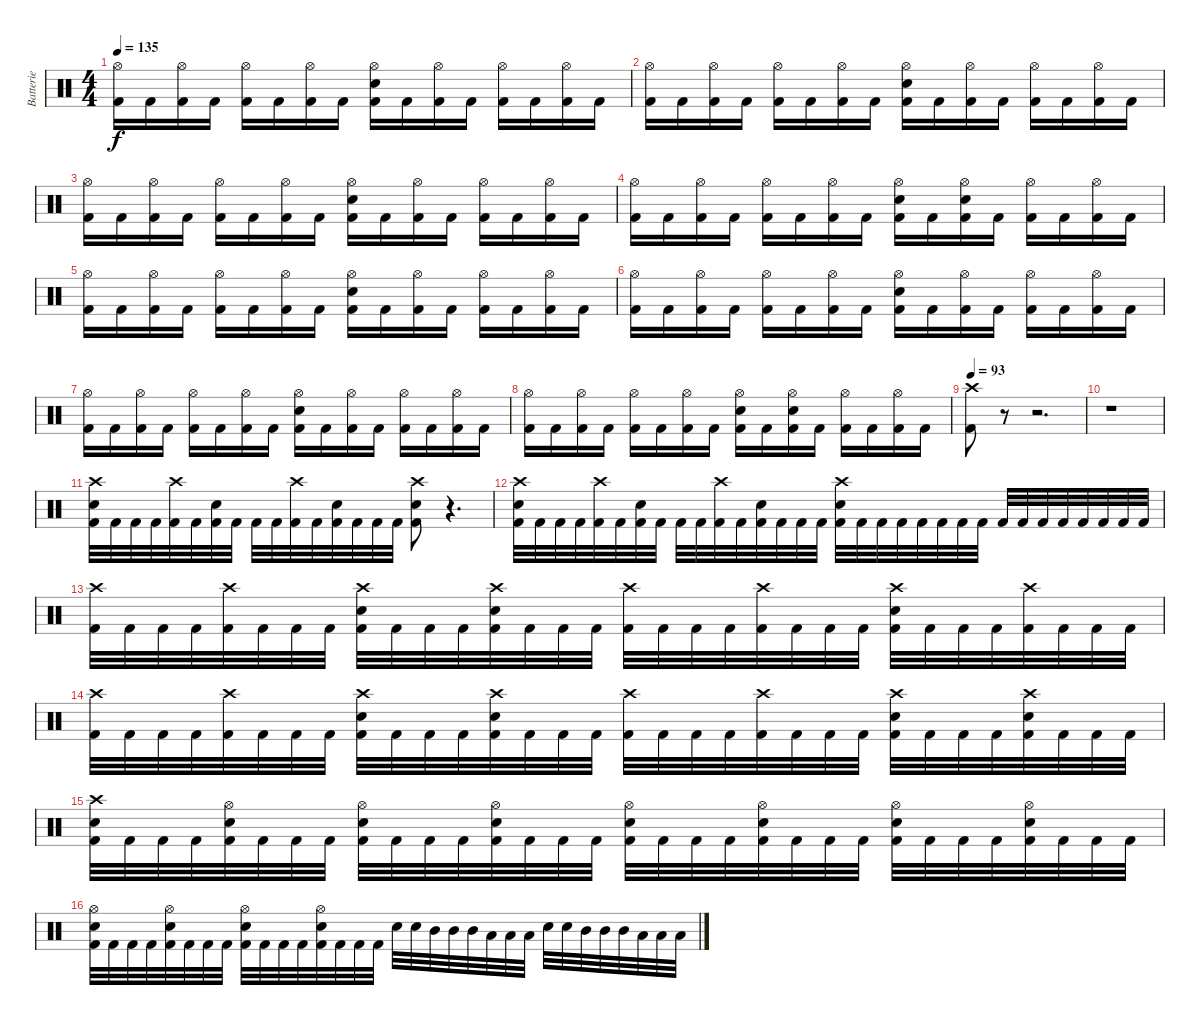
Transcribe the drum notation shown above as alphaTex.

\track ("Batterie" "Batterie") {instrument percussion}
\staff {score}
\articulation defaults
\ts (4 4)
\tempo 135
\clef neutral
\ks c
("Hi-Hat (open)" "Kick (hit) 2").16{dy f} "Kick (hit) 2".16 ("Hi-Hat (open)" "Kick (hit) 2").16 "Kick (hit) 2".16 ("Hi-Hat (open)" "Kick (hit) 2").16 "Kick (hit) 2".16 ("Hi-Hat (open)" "Kick (hit) 2").16 "Kick (hit) 2".16 ("Hi-Hat (open)" "Electric Snare (hit)" "Kick (hit) 2").16 "Kick (hit) 2".16 ("Hi-Hat (open)" "Kick (hit) 2").16 "Kick (hit) 2".16 ("Hi-Hat (open)" "Kick (hit) 2").16 "Kick (hit) 2".16 ("Hi-Hat (open)" "Kick (hit) 2").16 "Kick (hit) 2".16 |
("Hi-Hat (open)" "Kick (hit) 2").16 "Kick (hit) 2".16 ("Hi-Hat (open)" "Kick (hit) 2").16 "Kick (hit) 2".16 ("Hi-Hat (open)" "Kick (hit) 2").16 "Kick (hit) 2".16 ("Hi-Hat (open)" "Kick (hit) 2").16 "Kick (hit) 2".16 ("Hi-Hat (open)" "Electric Snare (hit)" "Kick (hit) 2").16 "Kick (hit) 2".16 ("Hi-Hat (open)" "Kick (hit) 2").16 "Kick (hit) 2".16 ("Hi-Hat (open)" "Kick (hit) 2").16 "Kick (hit) 2".16 ("Hi-Hat (open)" "Kick (hit) 2").16 "Kick (hit) 2".16 |
("Hi-Hat (open)" "Kick (hit) 2").16 "Kick (hit) 2".16 ("Hi-Hat (open)" "Kick (hit) 2").16 "Kick (hit) 2".16 ("Hi-Hat (open)" "Kick (hit) 2").16 "Kick (hit) 2".16 ("Hi-Hat (open)" "Kick (hit) 2").16 "Kick (hit) 2".16 ("Hi-Hat (open)" "Electric Snare (hit)" "Kick (hit) 2").16 "Kick (hit) 2".16 ("Hi-Hat (open)" "Kick (hit) 2").16 "Kick (hit) 2".16 ("Hi-Hat (open)" "Kick (hit) 2").16 "Kick (hit) 2".16 ("Hi-Hat (open)" "Kick (hit) 2").16 "Kick (hit) 2".16 |
("Hi-Hat (open)" "Kick (hit) 2").16 "Kick (hit) 2".16 ("Hi-Hat (open)" "Kick (hit) 2").16 "Kick (hit) 2".16 ("Hi-Hat (open)" "Kick (hit) 2").16 "Kick (hit) 2".16 ("Hi-Hat (open)" "Kick (hit) 2").16 "Kick (hit) 2".16 ("Hi-Hat (open)" "Electric Snare (hit)" "Kick (hit) 2").16 "Kick (hit) 2".16 ("Hi-Hat (open)" "Electric Snare (hit)" "Kick (hit) 2").16 "Kick (hit) 2".16 ("Hi-Hat (open)" "Kick (hit) 2").16 "Kick (hit) 2".16 ("Hi-Hat (open)" "Kick (hit) 2").16 "Kick (hit) 2".16 |
("Hi-Hat (open)" "Kick (hit) 2").16 "Kick (hit) 2".16 ("Hi-Hat (open)" "Kick (hit) 2").16 "Kick (hit) 2".16 ("Hi-Hat (open)" "Kick (hit) 2").16 "Kick (hit) 2".16 ("Hi-Hat (open)" "Kick (hit) 2").16 "Kick (hit) 2".16 ("Hi-Hat (open)" "Electric Snare (hit)" "Kick (hit) 2").16 "Kick (hit) 2".16 ("Hi-Hat (open)" "Kick (hit) 2").16 "Kick (hit) 2".16 ("Hi-Hat (open)" "Kick (hit) 2").16 "Kick (hit) 2".16 ("Hi-Hat (open)" "Kick (hit) 2").16 "Kick (hit) 2".16 |
("Hi-Hat (open)" "Kick (hit) 2").16 "Kick (hit) 2".16 ("Hi-Hat (open)" "Kick (hit) 2").16 "Kick (hit) 2".16 ("Hi-Hat (open)" "Kick (hit) 2").16 "Kick (hit) 2".16 ("Hi-Hat (open)" "Kick (hit) 2").16 "Kick (hit) 2".16 ("Hi-Hat (open)" "Electric Snare (hit)" "Kick (hit) 2").16 "Kick (hit) 2".16 ("Hi-Hat (open)" "Kick (hit) 2").16 "Kick (hit) 2".16 ("Hi-Hat (open)" "Kick (hit) 2").16 "Kick (hit) 2".16 ("Hi-Hat (open)" "Kick (hit) 2").16 "Kick (hit) 2".16 |
("Hi-Hat (open)" "Kick (hit) 2").16 "Kick (hit) 2".16 ("Hi-Hat (open)" "Kick (hit) 2").16 "Kick (hit) 2".16 ("Hi-Hat (open)" "Kick (hit) 2").16 "Kick (hit) 2".16 ("Hi-Hat (open)" "Kick (hit) 2").16 "Kick (hit) 2".16 ("Hi-Hat (open)" "Electric Snare (hit)" "Kick (hit) 2").16 "Kick (hit) 2".16 ("Hi-Hat (open)" "Kick (hit) 2").16 "Kick (hit) 2".16 ("Hi-Hat (open)" "Kick (hit) 2").16 "Kick (hit) 2".16 ("Hi-Hat (open)" "Kick (hit) 2").16 "Kick (hit) 2".16 |
("Hi-Hat (open)" "Kick (hit) 2").16 "Kick (hit) 2".16 ("Hi-Hat (open)" "Kick (hit) 2").16 "Kick (hit) 2".16 ("Hi-Hat (open)" "Kick (hit) 2").16 "Kick (hit) 2".16 ("Hi-Hat (open)" "Kick (hit) 2").16 "Kick (hit) 2".16 ("Hi-Hat (open)" "Electric Snare (hit)" "Kick (hit) 2").16 "Kick (hit) 2".16 ("Hi-Hat (open)" "Electric Snare (hit)" "Kick (hit) 2").16 "Kick (hit) 2".16 ("Hi-Hat (open)" "Kick (hit) 2").16 "Kick (hit) 2".16 ("Hi-Hat (open)" "Kick (hit) 2").16 "Kick (hit) 2".16 |
\section ("" "")
\tempo 93
("Crash high (hit)" "Kick (hit) 2").8 r.8 r.2{d} |
r.1 |
("Crash high (hit)" "Electric Snare (hit)" "Kick (hit) 2").32 "Kick (hit) 2".32 "Kick (hit) 2".32 "Kick (hit) 2".32 ("Crash high (hit)" "Kick (hit) 2").32 "Kick (hit) 2".32 ("Electric Snare (hit)" "Kick (hit) 2").32 "Kick (hit) 2".32 "Kick (hit) 2".32 "Kick (hit) 2".32 ("Crash high (hit)" "Kick (hit) 2").32 "Kick (hit) 2".32 ("Electric Snare (hit)" "Kick (hit) 2").32 "Kick (hit) 2".32 "Kick (hit) 2".32 "Kick (hit) 2".32 ("Crash high (hit)" "Electric Snare (hit)" "Kick (hit) 2").8 r.4{d} |
("Crash high (hit)" "Electric Snare (hit)" "Kick (hit) 2").32 "Kick (hit) 2".32 "Kick (hit) 2".32 "Kick (hit) 2".32 ("Crash high (hit)" "Kick (hit) 2").32 "Kick (hit) 2".32 ("Electric Snare (hit)" "Kick (hit) 2").32 "Kick (hit) 2".32 "Kick (hit) 2".32 "Kick (hit) 2".32 ("Crash high (hit)" "Kick (hit) 2").32 "Kick (hit) 2".32 ("Electric Snare (hit)" "Kick (hit) 2").32 "Kick (hit) 2".32 "Kick (hit) 2".32 "Kick (hit) 2".32 ("Crash high (hit)" "Electric Snare (hit)" "Kick (hit) 2").32 "Kick (hit) 2".32 "Kick (hit) 2".32 "Kick (hit) 2".32 "Kick (hit) 2".32 "Kick (hit) 2".32 "Kick (hit) 2".32 "Kick (hit) 2".32 "Kick (hit) 2".32 "Kick (hit) 2".32 "Kick (hit) 2".32 "Kick (hit) 2".32 "Kick (hit) 2".32 "Kick (hit) 2".32 "Kick (hit) 2".32 "Kick (hit) 2".32 |
("Crash high (hit)" "Kick (hit) 2").32 "Kick (hit) 2".32 "Kick (hit) 2".32 "Kick (hit) 2".32 ("Crash high (hit)" "Kick (hit) 2").32 "Kick (hit) 2".32 "Kick (hit) 2".32 "Kick (hit) 2".32 ("Crash high (hit)" "Electric Snare (hit)" "Kick (hit) 2").32 "Kick (hit) 2".32 "Kick (hit) 2".32 "Kick (hit) 2".32 ("Crash high (hit)" "Electric Snare (hit)" "Kick (hit) 2").32 "Kick (hit) 2".32 "Kick (hit) 2".32 "Kick (hit) 2".32 ("Crash high (hit)" "Kick (hit) 2").32 "Kick (hit) 2".32 "Kick (hit) 2".32 "Kick (hit) 2".32 ("Crash high (hit)" "Kick (hit) 2").32 "Kick (hit) 2".32 "Kick (hit) 2".32 "Kick (hit) 2".32 ("Crash high (hit)" "Electric Snare (hit)" "Kick (hit) 2").32 "Kick (hit) 2".32 "Kick (hit) 2".32 "Kick (hit) 2".32 ("Crash high (hit)" "Kick (hit) 2").32 "Kick (hit) 2".32 "Kick (hit) 2".32 "Kick (hit) 2".32 |
("Crash high (hit)" "Kick (hit) 2").32 "Kick (hit) 2".32 "Kick (hit) 2".32 "Kick (hit) 2".32 ("Crash high (hit)" "Kick (hit) 2").32 "Kick (hit) 2".32 "Kick (hit) 2".32 "Kick (hit) 2".32 ("Crash high (hit)" "Electric Snare (hit)" "Kick (hit) 2").32 "Kick (hit) 2".32 "Kick (hit) 2".32 "Kick (hit) 2".32 ("Crash high (hit)" "Electric Snare (hit)" "Kick (hit) 2").32 "Kick (hit) 2".32 "Kick (hit) 2".32 "Kick (hit) 2".32 ("Crash high (hit)" "Kick (hit) 2").32 "Kick (hit) 2".32 "Kick (hit) 2".32 "Kick (hit) 2".32 ("Crash high (hit)" "Kick (hit) 2").32 "Kick (hit) 2".32 "Kick (hit) 2".32 "Kick (hit) 2".32 ("Crash high (hit)" "Electric Snare (hit)" "Kick (hit) 2").32 "Kick (hit) 2".32 "Kick (hit) 2".32 "Kick (hit) 2".32 ("Crash high (hit)" "Electric Snare (hit)" "Kick (hit) 2").32 "Kick (hit) 2".32 "Kick (hit) 2".32 "Kick (hit) 2".32 |
("Crash high (hit)" "Electric Snare (hit)" "Kick (hit) 2").32 "Kick (hit) 2".32 "Kick (hit) 2".32 "Kick (hit) 2".32 ("Hi-Hat (open)" "Electric Snare (hit)" "Kick (hit) 2").32 "Kick (hit) 2".32 "Kick (hit) 2".32 "Kick (hit) 2".32 ("Hi-Hat (open)" "Electric Snare (hit)" "Kick (hit) 2").32 "Kick (hit) 2".32 "Kick (hit) 2".32 "Kick (hit) 2".32 ("Hi-Hat (open)" "Electric Snare (hit)" "Kick (hit) 2").32 "Kick (hit) 2".32 "Kick (hit) 2".32 "Kick (hit) 2".32 ("Hi-Hat (open)" "Electric Snare (hit)" "Kick (hit) 2").32 "Kick (hit) 2".32 "Kick (hit) 2".32 "Kick (hit) 2".32 ("Hi-Hat (open)" "Electric Snare (hit)" "Kick (hit) 2").32 "Kick (hit) 2".32 "Kick (hit) 2".32 "Kick (hit) 2".32 ("Hi-Hat (open)" "Electric Snare (hit)" "Kick (hit) 2").32 "Kick (hit) 2".32 "Kick (hit) 2".32 "Kick (hit) 2".32 ("Hi-Hat (open)" "Electric Snare (hit)" "Kick (hit) 2").32 "Kick (hit) 2".32 "Kick (hit) 2".32 "Kick (hit) 2".32 |
("Hi-Hat (open)" "Electric Snare (hit)" "Kick (hit) 2").32 "Kick (hit) 2".32 "Kick (hit) 2".32 "Kick (hit) 2".32 ("Hi-Hat (open)" "Electric Snare (hit)" "Kick (hit) 2").32 "Kick (hit) 2".32 "Kick (hit) 2".32 "Kick (hit) 2".32 ("Hi-Hat (open)" "Electric Snare (hit)" "Kick (hit) 2").32 "Kick (hit) 2".32 "Kick (hit) 2".32 "Kick (hit) 2".32 ("Hi-Hat (open)" "Electric Snare (hit)" "Kick (hit) 2").32 "Kick (hit) 2".32 "Kick (hit) 2".32 "Kick (hit) 2".32 "Electric Snare (hit)".32 "Electric Snare (hit)".32 "Mid Tom (hit)".32 "Mid Tom (hit)".32 "Mid Tom (hit)".32 "Low Tom (hit)".32 "Low Tom (hit)".32 "Low Tom (hit)".32 "Electric Snare (hit)".32 "Electric Snare (hit)".32 "Mid Tom (hit)".32 "Mid Tom (hit)".32 "Mid Tom (hit)".32 "Low Tom (hit)".32 "Low Tom (hit)".32 "Low Tom (hit)".32
